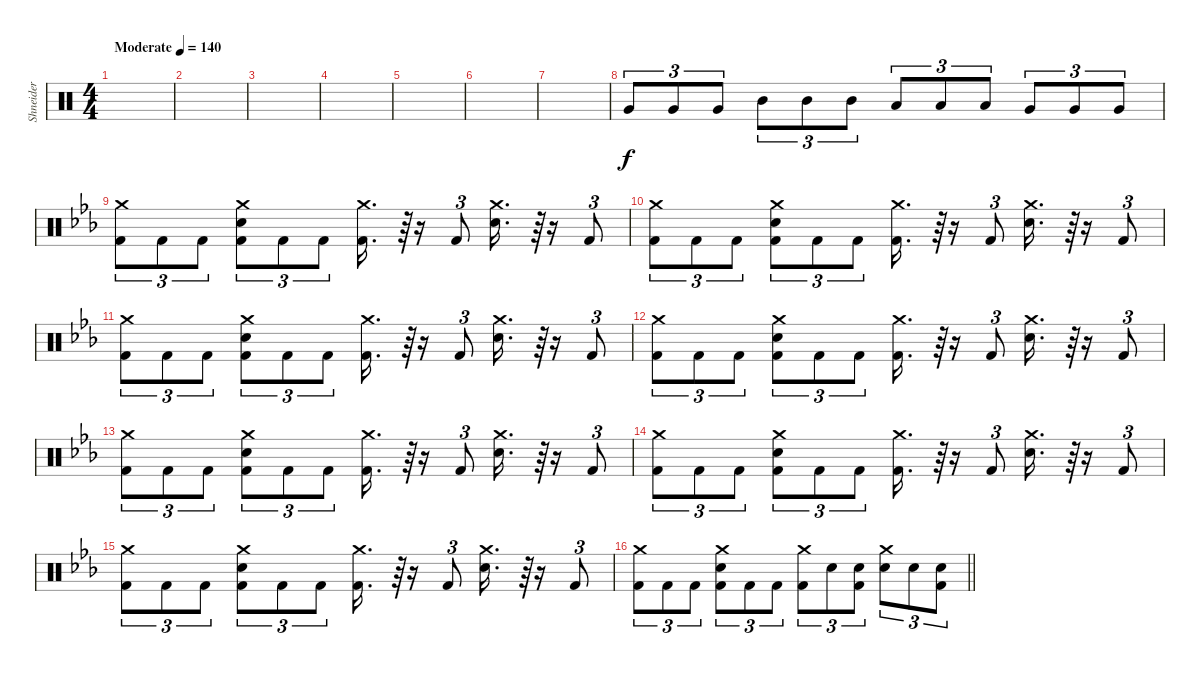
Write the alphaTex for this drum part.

\track ("Shneider" "Shneider") {instrument percussion}
\staff {score}
\articulation defaults
\ts (4 4)
\tempo (140 "Moderate")
\clef neutral
\ks c
|
|
|
|
|
|
|
"Very Low Tom (hit)".8{tu (3 2)} "Very Low Tom (hit)".8{tu (3 2)} "Very Low Tom (hit)".8{tu (3 2)} "Mid Tom (hit)".8{tu (3 2)} "Mid Tom (hit)".8{tu (3 2)} "Mid Tom (hit)".8{tu (3 2)} "Low Tom (hit)".8{tu (3 2)} "Low Tom (hit)".8{tu (3 2)} "Low Tom (hit)".8{tu (3 2)} "Very Low Tom (hit)".8{tu (3 2)} "Very Low Tom (hit)".8{tu (3 2)} "Very Low Tom (hit)".8{tu (3 2)} |
\ks eb
("Crash medium (hit)" "Kick (hit) 2").8{tu (3 2)} "Kick (hit) 2".8{tu (3 2)} "Kick (hit) 2".8{tu (3 2)} ("Crash medium (hit)" "Snare (hit) 2" "Kick (hit) 2").8{tu (3 2)} "Kick (hit) 2".8{tu (3 2)} "Kick (hit) 2".8{tu (3 2)} ("Crash medium (hit)" "Kick (hit) 2").16{d} r.64{tu (3 2)} r.16 "Kick (hit) 2".8{tu (3 2)} ("Crash medium (hit)" "Snare (hit) 2").16{d} r.64{tu (3 2)} r.16 "Kick (hit) 2".8{tu (3 2)} |
("Crash medium (hit)" "Kick (hit) 2").8{tu (3 2)} "Kick (hit) 2".8{tu (3 2)} "Kick (hit) 2".8{tu (3 2)} ("Crash medium (hit)" "Snare (hit) 2" "Kick (hit) 2").8{tu (3 2)} "Kick (hit) 2".8{tu (3 2)} "Kick (hit) 2".8{tu (3 2)} ("Crash medium (hit)" "Kick (hit) 2").16{d} r.64{tu (3 2)} r.16 "Kick (hit) 2".8{tu (3 2)} ("Crash medium (hit)" "Snare (hit) 2").16{d} r.64{tu (3 2)} r.16 "Kick (hit) 2".8{tu (3 2)} |
("Crash medium (hit)" "Kick (hit) 2").8{tu (3 2)} "Kick (hit) 2".8{tu (3 2)} "Kick (hit) 2".8{tu (3 2)} ("Crash medium (hit)" "Snare (hit) 2" "Kick (hit) 2").8{tu (3 2)} "Kick (hit) 2".8{tu (3 2)} "Kick (hit) 2".8{tu (3 2)} ("Crash medium (hit)" "Kick (hit) 2").16{d} r.64{tu (3 2)} r.16 "Kick (hit) 2".8{tu (3 2)} ("Crash medium (hit)" "Snare (hit) 2").16{d} r.64{tu (3 2)} r.16 "Kick (hit) 2".8{tu (3 2)} |
("Crash medium (hit)" "Kick (hit) 2").8{tu (3 2)} "Kick (hit) 2".8{tu (3 2)} "Kick (hit) 2".8{tu (3 2)} ("Crash medium (hit)" "Snare (hit) 2" "Kick (hit) 2").8{tu (3 2)} "Kick (hit) 2".8{tu (3 2)} "Kick (hit) 2".8{tu (3 2)} ("Crash medium (hit)" "Kick (hit) 2").16{d} r.64{tu (3 2)} r.16 "Kick (hit) 2".8{tu (3 2)} ("Crash medium (hit)" "Snare (hit) 2").16{d} r.64{tu (3 2)} r.16 "Kick (hit) 2".8{tu (3 2)} |
("Crash medium (hit)" "Kick (hit) 2").8{tu (3 2)} "Kick (hit) 2".8{tu (3 2)} "Kick (hit) 2".8{tu (3 2)} ("Crash medium (hit)" "Snare (hit) 2" "Kick (hit) 2").8{tu (3 2)} "Kick (hit) 2".8{tu (3 2)} "Kick (hit) 2".8{tu (3 2)} ("Crash medium (hit)" "Kick (hit) 2").16{d} r.64{tu (3 2)} r.16 "Kick (hit) 2".8{tu (3 2)} ("Crash medium (hit)" "Snare (hit) 2").16{d} r.64{tu (3 2)} r.16 "Kick (hit) 2".8{tu (3 2)} |
("Crash medium (hit)" "Kick (hit) 2").8{tu (3 2)} "Kick (hit) 2".8{tu (3 2)} "Kick (hit) 2".8{tu (3 2)} ("Crash medium (hit)" "Snare (hit) 2" "Kick (hit) 2").8{tu (3 2)} "Kick (hit) 2".8{tu (3 2)} "Kick (hit) 2".8{tu (3 2)} ("Crash medium (hit)" "Kick (hit) 2").16{d} r.64{tu (3 2)} r.16 "Kick (hit) 2".8{tu (3 2)} ("Crash medium (hit)" "Snare (hit) 2").16{d} r.64{tu (3 2)} r.16 "Kick (hit) 2".8{tu (3 2)} |
("Crash medium (hit)" "Kick (hit) 2").8{tu (3 2)} "Kick (hit) 2".8{tu (3 2)} "Kick (hit) 2".8{tu (3 2)} ("Crash medium (hit)" "Snare (hit) 2" "Kick (hit) 2").8{tu (3 2)} "Kick (hit) 2".8{tu (3 2)} "Kick (hit) 2".8{tu (3 2)} ("Crash medium (hit)" "Kick (hit) 2").16{d} r.64{tu (3 2)} r.16 "Kick (hit) 2".8{tu (3 2)} ("Crash medium (hit)" "Snare (hit) 2").16{d} r.64{tu (3 2)} r.16 "Kick (hit) 2".8{tu (3 2)} |
\barLineRight lightlight
("Crash medium (hit)" "Kick (hit) 2").8{tu (3 2)} "Kick (hit) 2".8{tu (3 2)} "Kick (hit) 2".8{tu (3 2)} ("Crash medium (hit)" "Snare (hit) 2" "Kick (hit) 2").8{tu (3 2)} "Kick (hit) 2".8{tu (3 2)} "Kick (hit) 2".8{tu (3 2)} ("Crash medium (hit)" "Kick (hit) 2").8{tu (3 2)} "Snare (hit) 2".8{tu (3 2)} ("Snare (hit) 2" "Kick (hit) 2").8{tu (3 2)} ("Crash medium (hit)" "Snare (hit) 2").8{tu (3 2)} "Snare (hit) 2".8{tu (3 2)} ("Snare (hit) 2" "Kick (hit) 2").8{tu (3 2)}
